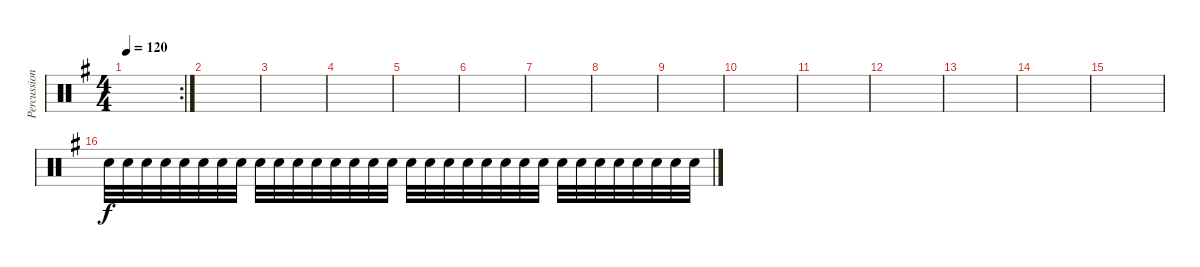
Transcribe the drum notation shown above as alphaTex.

\track ("Percussion 3" "Percussion") {instrument percussion}
\staff {score}
\articulation defaults
\rc 2
\ts (4 4)
\tempo 120
\clef neutral
\ks eminor
|
|
|
|
|
|
|
|
|
|
|
|
|
|
|
"Electric Snare (hit)".32 "Electric Snare (hit)".32 "Electric Snare (hit)".32 "Electric Snare (hit)".32 "Electric Snare (hit)".32 "Electric Snare (hit)".32 "Electric Snare (hit)".32 "Electric Snare (hit)".32 "Electric Snare (hit)".32 "Electric Snare (hit)".32 "Electric Snare (hit)".32 "Electric Snare (hit)".32 "Electric Snare (hit)".32 "Electric Snare (hit)".32 "Electric Snare (hit)".32 "Electric Snare (hit)".32 "Electric Snare (hit)".32 "Electric Snare (hit)".32 "Electric Snare (hit)".32 "Electric Snare (hit)".32 "Electric Snare (hit)".32 "Electric Snare (hit)".32 "Electric Snare (hit)".32 "Electric Snare (hit)".32 "Electric Snare (hit)".32 "Electric Snare (hit)".32 "Electric Snare (hit)".32 "Electric Snare (hit)".32 "Electric Snare (hit)".32 "Electric Snare (hit)".32 "Electric Snare (hit)".32 "Electric Snare (hit)".32
